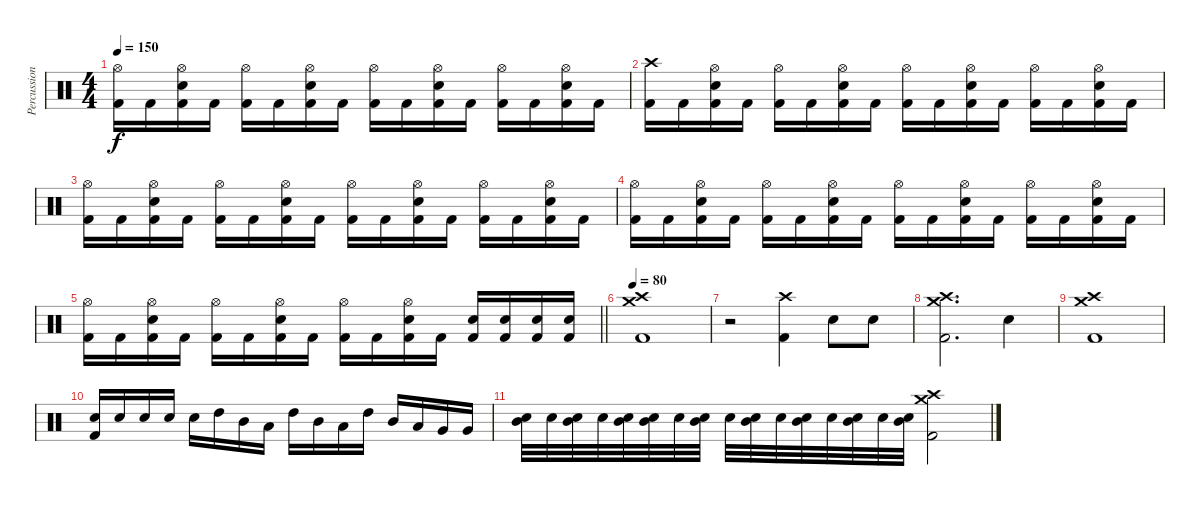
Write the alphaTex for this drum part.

\track ("Percussion" "Percussion") {instrument percussion}
\staff {score}
\articulation defaults
\ts (4 4)
\tempo 150
\clef neutral
\ks c
("Hi-Hat (open)" "Kick (hit) 2").16{dy f} "Kick (hit) 2".16 ("Hi-Hat (open)" "Snare (hit) 2" "Kick (hit) 2").16 "Kick (hit) 2".16 ("Hi-Hat (open)" "Kick (hit) 2").16 "Kick (hit) 2".16 ("Hi-Hat (open)" "Snare (hit) 2" "Kick (hit) 2").16 "Kick (hit) 2".16 ("Hi-Hat (open)" "Kick (hit) 2").16 "Kick (hit) 2".16 ("Hi-Hat (open)" "Snare (hit) 2" "Kick (hit) 2").16 "Kick (hit) 2".16 ("Hi-Hat (open)" "Kick (hit) 2").16 "Kick (hit) 2".16 ("Hi-Hat (open)" "Snare (hit) 2" "Kick (hit) 2").16 "Kick (hit) 2".16 |
("Crash high (hit)" "Kick (hit) 2").16 "Kick (hit) 2".16 ("Hi-Hat (open)" "Snare (hit) 2" "Kick (hit) 2").16 "Kick (hit) 2".16 ("Hi-Hat (open)" "Kick (hit) 2").16 "Kick (hit) 2".16 ("Hi-Hat (open)" "Snare (hit) 2" "Kick (hit) 2").16 "Kick (hit) 2".16 ("Hi-Hat (open)" "Kick (hit) 2").16 "Kick (hit) 2".16 ("Hi-Hat (open)" "Snare (hit) 2" "Kick (hit) 2").16 "Kick (hit) 2".16 ("Hi-Hat (open)" "Kick (hit) 2").16 "Kick (hit) 2".16 ("Hi-Hat (open)" "Snare (hit) 2" "Kick (hit) 2").16 "Kick (hit) 2".16 |
("Hi-Hat (open)" "Kick (hit) 2").16 "Kick (hit) 2".16 ("Hi-Hat (open)" "Snare (hit) 2" "Kick (hit) 2").16 "Kick (hit) 2".16 ("Hi-Hat (open)" "Kick (hit) 2").16 "Kick (hit) 2".16 ("Hi-Hat (open)" "Snare (hit) 2" "Kick (hit) 2").16 "Kick (hit) 2".16 ("Hi-Hat (open)" "Kick (hit) 2").16 "Kick (hit) 2".16 ("Hi-Hat (open)" "Snare (hit) 2" "Kick (hit) 2").16 "Kick (hit) 2".16 ("Hi-Hat (open)" "Kick (hit) 2").16 "Kick (hit) 2".16 ("Hi-Hat (open)" "Snare (hit) 2" "Kick (hit) 2").16 "Kick (hit) 2".16 |
("Hi-Hat (open)" "Kick (hit) 2").16 "Kick (hit) 2".16 ("Hi-Hat (open)" "Snare (hit) 2" "Kick (hit) 2").16 "Kick (hit) 2".16 ("Hi-Hat (open)" "Kick (hit) 2").16 "Kick (hit) 2".16 ("Hi-Hat (open)" "Snare (hit) 2" "Kick (hit) 2").16 "Kick (hit) 2".16 ("Hi-Hat (open)" "Kick (hit) 2").16 "Kick (hit) 2".16 ("Hi-Hat (open)" "Snare (hit) 2" "Kick (hit) 2").16 "Kick (hit) 2".16 ("Hi-Hat (open)" "Kick (hit) 2").16 "Kick (hit) 2".16 ("Hi-Hat (open)" "Snare (hit) 2" "Kick (hit) 2").16 "Kick (hit) 2".16 |
\barLineRight lightlight
("Hi-Hat (open)" "Kick (hit) 2").16 "Kick (hit) 2".16 ("Hi-Hat (open)" "Snare (hit) 2" "Kick (hit) 2").16 "Kick (hit) 2".16 ("Hi-Hat (open)" "Kick (hit) 2").16 "Kick (hit) 2".16 ("Hi-Hat (open)" "Snare (hit) 2" "Kick (hit) 2").16 "Kick (hit) 2".16 ("Hi-Hat (open)" "Kick (hit) 2").16 "Kick (hit) 2".16 ("Hi-Hat (open)" "Snare (hit) 2" "Kick (hit) 2").16 "Kick (hit) 2".16 ("Snare (hit) 2" "Kick (hit) 2").16 ("Snare (hit) 2" "Kick (hit) 2").16 ("Snare (hit) 2" "Kick (hit) 2").16 ("Snare (hit) 2" "Kick (hit) 2").16 |
\tempo 80
("Crash high (hit)" "Crash medium (hit)" "Kick (hit) 2").1 |
r.2 ("Crash high (hit)" "Kick (hit) 2").4 "Snare (hit) 2".8 "Snare (hit) 2".8 |
("Crash high (hit)" "Crash medium (hit)" "Kick (hit) 2").2{d} "Snare (hit) 2".4 |
("Crash high (hit)" "Crash medium (hit)" "Kick (hit) 2").1 |
("Snare (hit) 2" "Kick (hit) 2").16 "Snare (hit) 2".16 "Snare (hit) 2".16 "Snare (hit) 2".16 "Snare (hit) 2".16 "High Tom (hit)".16 "Mid Tom (hit)".16 "Low Tom (hit)".16 "High Tom (hit)".16 "Mid Tom (hit)".16 "Low Tom (hit)".16 "High Tom (hit)".16 "Mid Tom (hit)".16 "Low Tom (hit)".16 "Very Low Tom (hit)".16 "Very Low Tom (hit)".16 |
("Mid Tom (hit)" "Snare (hit) 2").32 "Snare (hit) 2".32 ("Mid Tom (hit)" "Snare (hit) 2").32 "Snare (hit) 2".32 ("Mid Tom (hit)" "Snare (hit) 2").32 ("Mid Tom (hit)" "Snare (hit) 2").32 "Snare (hit) 2".32 ("Mid Tom (hit)" "Snare (hit) 2").32 "Snare (hit) 2".32 ("Mid Tom (hit)" "Snare (hit) 2").32 "Snare (hit) 2".32 ("Mid Tom (hit)" "Snare (hit) 2").32 "Snare (hit) 2".32 ("Mid Tom (hit)" "Snare (hit) 2").32 "Snare (hit) 2".32 ("Mid Tom (hit)" "Snare (hit) 2").32 ("Crash medium (hit)" "Crash high (hit)" "Kick (hit) 2").2
